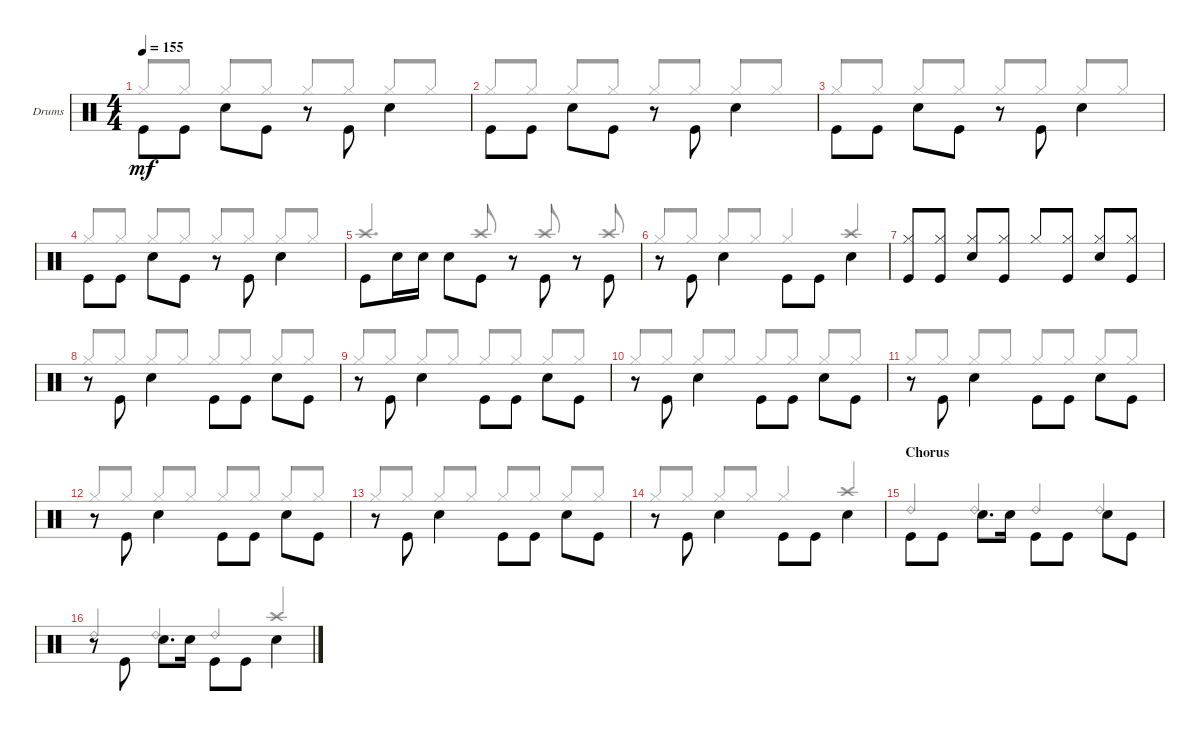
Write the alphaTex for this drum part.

\defaultSystemsLayout 4
\bracketExtendMode groupsimilarinstruments
\firstSystemTrackNameOrientation horizontal
\otherSystemsTrackNameOrientation horizontal
\track ("PETER CRISS" "Drums") {instrument percussion}
\staff {score}
\articulation defaults
\voice
\ts (4 4)
\tempo 155
\clef neutral
\ks c "Kick (hit)".8{dy mf beam invert} "Kick (hit)".8 "Snare (hit) 2".8{beam invert} "Kick (hit)".8
r.8 "Kick (hit)".8{beam invert} "Snare (hit) 2".4{beam invert} |
"Kick (hit)".8{beam invert} "Kick (hit)".8 "Snare (hit) 2".8{beam invert} "Kick (hit)".8 r.8 "Kick (hit)".8{beam invert} "Snare (hit) 2".4{beam invert} |
"Kick (hit)".8{beam invert} "Kick (hit)".8 "Snare (hit) 2".8{beam invert} "Kick (hit)".8 r.8 "Kick (hit)".8{beam invert} "Snare (hit) 2".4{beam invert} |
"Kick (hit)".8{beam invert} "Kick (hit)".8 "Snare (hit) 2".8{beam invert} "Kick (hit)".8 r.8 "Kick (hit)".8{beam invert} "Snare (hit) 2".4{beam invert} |
"Kick (hit)".8{beam invert} "Snare (hit) 2".16 "Snare (hit) 2".16 "Snare (hit) 2".8{beam invert} "Kick (hit)".8 r.8 "Kick (hit)".8{beam invert} r.8 "Kick (hit)".8{beam invert} |
r.8 "Kick (hit)".8{beam invert} "Snare (hit) 2".4{beam invert} "Kick (hit)".8{beam invert} "Kick (hit)".8 "Snare (hit) 2".4{beam invert} |
("Hi-Hat (closed)" "Kick (hit)").8{beam invert} ("Hi-Hat (closed)" "Kick (hit)").8 ("Hi-Hat (closed)" "Snare (hit) 2").8{beam invert} ("Hi-Hat (closed)" "Kick (hit)").8 "Hi-Hat (closed)".8{beam invert} ("Hi-Hat (closed)" "Kick (hit)").8 ("Hi-Hat (closed)" "Snare (hit) 2").8{beam invert} ("Hi-Hat (closed)" "Kick (hit)").8 |
r.8{beam invert} "Kick (hit)".8{beam invert} "Snare (hit) 2".4{beam invert} "Kick (hit)".8{beam invert} "Kick (hit)".8 "Snare (hit) 2".8{beam invert} "Kick (hit)".8 |
r.8{beam invert} "Kick (hit)".8{beam invert} "Snare (hit) 2".4{beam invert} "Kick (hit)".8{beam invert} "Kick (hit)".8 "Snare (hit) 2".8{beam invert} "Kick (hit)".8 |
r.8{beam invert} "Kick (hit)".8{beam invert} "Snare (hit) 2".4{beam invert} "Kick (hit)".8{beam invert} "Kick (hit)".8 "Snare (hit) 2".8{beam invert} "Kick (hit)".8 |
r.8{beam invert} "Kick (hit)".8{beam invert} "Snare (hit) 2".4{beam invert} "Kick (hit)".8{beam invert} "Kick (hit)".8 "Snare (hit) 2".8{beam invert} "Kick (hit)".8 |
r.8{beam invert} "Kick (hit)".8{beam invert} "Snare (hit) 2".4{beam invert} "Kick (hit)".8{beam invert} "Kick (hit)".8 "Snare (hit) 2".8{beam invert} "Kick (hit)".8 |
r.8{beam invert} "Kick (hit)".8{beam invert} "Snare (hit) 2".4{beam invert} "Kick (hit)".8{beam invert} "Kick (hit)".8 "Snare (hit) 2".8{beam invert} "Kick (hit)".8 |
r.8{beam invert} "Kick (hit)".8{beam invert} "Snare (hit) 2".4{beam invert} "Kick (hit)".8{beam invert} "Kick (hit)".8 "Snare (hit) 2".4{beam invert} |
\section ("" "Chorus")
"Kick (hit)".8{beam invert} "Kick (hit)".8 "Snare (hit) 2".8{d beam invert} "Snare (hit) 2".16 "Kick (hit)".8{beam invert} "Kick (hit)".8 "Snare (hit) 2".8{beam invert} "Kick (hit)".8 |
r.8 "Kick (hit)".8{beam invert} "Snare (hit) 2".8{d beam invert} "Snare (hit) 2".16 "Kick (hit)".8{beam invert} "Kick (hit)".8 "Snare (hit) 2".4{beam invert}
\voice
\clef neutral
\ottava regular
\simile none
\ks c "Hi-Hat (closed)".8{dy mf beam invert} "Hi-Hat (closed)".8 "Hi-Hat (closed)".8{beam invert} "Hi-Hat (closed)".8 "Hi-Hat (closed)".8{beam invert} "Hi-Hat (closed)".8 "Hi-Hat (closed)".8{beam invert} "Hi-Hat (closed)".8
|
"Hi-Hat (closed)".8{beam invert} "Hi-Hat (closed)".8 "Hi-Hat (closed)".8{beam invert} "Hi-Hat (closed)".8 "Hi-Hat (closed)".8{beam invert} "Hi-Hat (closed)".8 "Hi-Hat (closed)".8{beam invert} "Hi-Hat (closed)".8 |
"Hi-Hat (closed)".8{beam invert} "Hi-Hat (closed)".8 "Hi-Hat (closed)".8{beam invert} "Hi-Hat (closed)".8 "Hi-Hat (closed)".8{beam invert} "Hi-Hat (closed)".8 "Hi-Hat (closed)".8{beam invert} "Hi-Hat (closed)".8 |
"Hi-Hat (closed)".8{beam invert} "Hi-Hat (closed)".8 "Hi-Hat (closed)".8{beam invert} "Hi-Hat (closed)".8 "Hi-Hat (closed)".8{beam invert} "Hi-Hat (closed)".8 "Hi-Hat (closed)".8{beam invert} "Hi-Hat (closed)".8 |
"Crash high (hit)".4{d beam invert} "Crash high (hit)".8{beam invert} r.8 "Crash high (hit)".8{beam invert} r.8 "Crash high (hit)".8{beam invert} |
"Hi-Hat (closed)".8{beam invert} "Hi-Hat (closed)".8 "Hi-Hat (closed)".8{beam invert} "Hi-Hat (closed)".8 "Hi-Hat (closed)".4{beam invert} "Crash high (hit)".4{beam invert} |
|
"Hi-Hat (closed)".8{beam invert} "Hi-Hat (closed)".8 "Hi-Hat (closed)".8{beam invert} "Hi-Hat (closed)".8 "Hi-Hat (closed)".8{beam invert} "Hi-Hat (closed)".8 "Hi-Hat (closed)".8{beam invert} "Hi-Hat (closed)".8 |
"Hi-Hat (closed)".8{beam invert} "Hi-Hat (closed)".8 "Hi-Hat (closed)".8{beam invert} "Hi-Hat (closed)".8 "Hi-Hat (closed)".8{beam invert} "Hi-Hat (closed)".8 "Hi-Hat (closed)".8{beam invert} "Hi-Hat (closed)".8 |
"Hi-Hat (closed)".8{beam invert} "Hi-Hat (closed)".8 "Hi-Hat (closed)".8{beam invert} "Hi-Hat (closed)".8 "Hi-Hat (closed)".8{beam invert} "Hi-Hat (closed)".8 "Hi-Hat (closed)".8{beam invert} "Hi-Hat (closed)".8 |
"Hi-Hat (closed)".8{beam invert} "Hi-Hat (closed)".8 "Hi-Hat (closed)".8{beam invert} "Hi-Hat (closed)".8 "Hi-Hat (closed)".8{beam invert} "Hi-Hat (closed)".8 "Hi-Hat (closed)".8{beam invert} "Hi-Hat (closed)".8 |
"Hi-Hat (closed)".8{beam invert} "Hi-Hat (closed)".8 "Hi-Hat (closed)".8{beam invert} "Hi-Hat (closed)".8 "Hi-Hat (closed)".8{beam invert} "Hi-Hat (closed)".8 "Hi-Hat (closed)".8{beam invert} "Hi-Hat (closed)".8 |
"Hi-Hat (closed)".8{beam invert} "Hi-Hat (closed)".8 "Hi-Hat (closed)".8{beam invert} "Hi-Hat (closed)".8 "Hi-Hat (closed)".8{beam invert} "Hi-Hat (closed)".8 "Hi-Hat (closed)".8{beam invert} "Hi-Hat (closed)".8 |
"Hi-Hat (closed)".8{beam invert} "Hi-Hat (closed)".8 "Hi-Hat (closed)".8{beam invert} "Hi-Hat (closed)".8 "Hi-Hat (closed)".4{beam invert} "Crash high (hit)".4{beam invert} |
"Ride (bell) 2".4{beam invert} "Ride (bell) 2".4{beam invert} "Ride (bell) 2".4{beam invert} "Ride (bell) 2".4{beam invert} |
"Ride (bell) 2".4{beam invert} "Ride (bell) 2".4{beam invert} "Ride (bell) 2".4{beam invert} "Crash high (hit)".4{beam invert}
